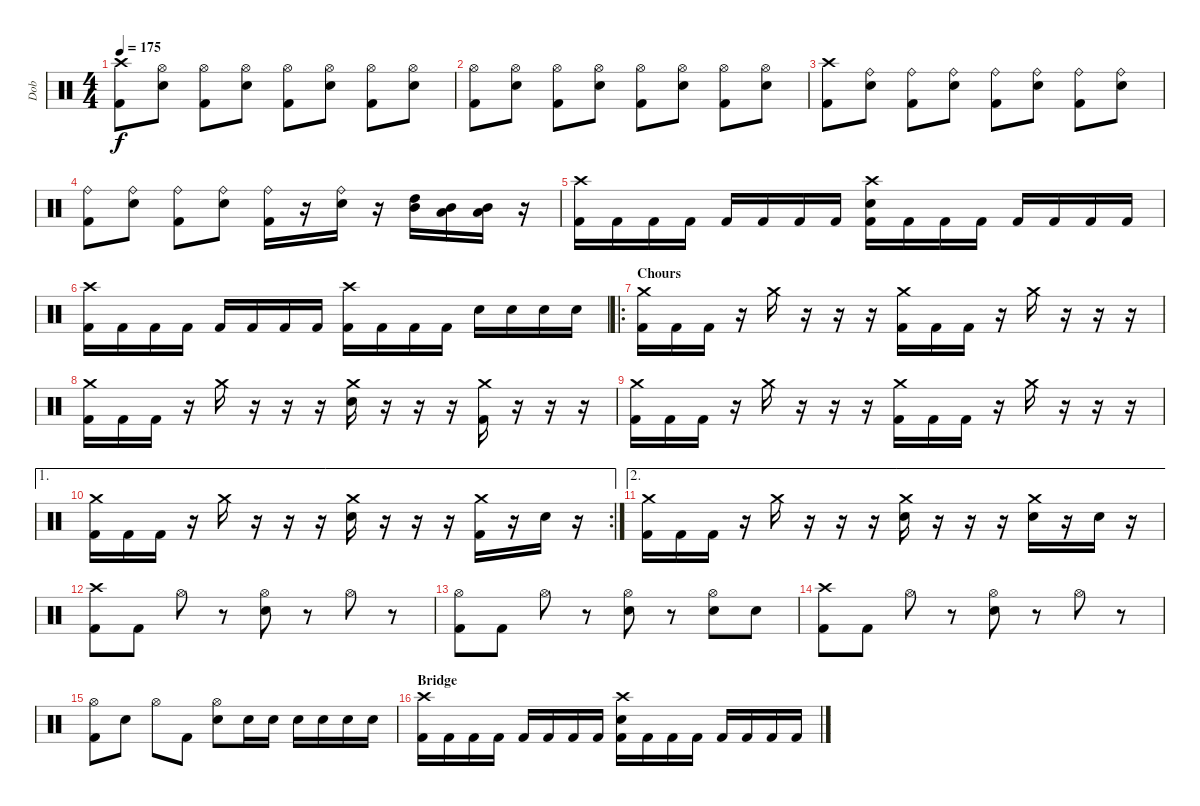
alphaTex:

\track ("Dob" "Dob") {instrument percussion}
\staff {score}
\articulation defaults
\ts (4 4)
\tempo 175
\clef neutral
\ks c
("Crash high (hit)" "Kick (hit) 2").8{dy f} ("Hi-Hat (open)" "Snare (hit) 2").8 ("Hi-Hat (open)" "Kick (hit) 2").8 ("Hi-Hat (open)" "Snare (hit) 2").8 ("Hi-Hat (open)" "Kick (hit) 2").8 ("Hi-Hat (open)" "Snare (hit) 2").8 ("Hi-Hat (open)" "Kick (hit) 2").8 ("Hi-Hat (open)" "Snare (hit) 2").8 |
("Hi-Hat (open)" "Kick (hit) 2").8 ("Hi-Hat (open)" "Snare (hit) 2").8 ("Hi-Hat (open)" "Kick (hit) 2").8 ("Hi-Hat (open)" "Snare (hit) 2").8 ("Hi-Hat (open)" "Kick (hit) 2").8 ("Hi-Hat (open)" "Snare (hit) 2").8 ("Hi-Hat (open)" "Kick (hit) 2").8 ("Hi-Hat (open)" "Snare (hit) 2").8 |
("Crash high (hit)" "Kick (hit) 2").8 ("Ride (bell)" "Snare (hit) 2").8 ("Ride (bell)" "Kick (hit) 2").8 ("Ride (bell)" "Snare (hit) 2").8 ("Ride (bell)" "Kick (hit) 2").8 ("Ride (bell)" "Snare (hit) 2").8 ("Ride (bell)" "Kick (hit) 2").8 ("Ride (bell)" "Snare (hit) 2").8 |
("Ride (bell)" "Kick (hit) 2").8 ("Ride (bell)" "Snare (hit) 2").8 ("Ride (bell)" "Kick (hit) 2").8 ("Ride (bell)" "Snare (hit) 2").8 ("Ride (bell)" "Kick (hit) 2").16 r.16 ("Ride (bell)" "Snare (hit) 2").16 r.16 ("Mid Tom (hit)" "High Tom (hit)").16 ("Low Tom (hit)" "Mid Tom (hit)").16 ("Low Tom (hit)" "Mid Tom (hit)").16 r.16 |
("Crash high (hit)" "Kick (hit) 2").16 "Kick (hit) 2".16 "Kick (hit) 2".16 "Kick (hit) 2".16 "Kick (hit) 2".16 "Kick (hit) 2".16 "Kick (hit) 2".16 "Kick (hit) 2".16 ("Crash high (hit)" "Snare (hit) 2" "Kick (hit) 2").16 "Kick (hit) 2".16 "Kick (hit) 2".16 "Kick (hit) 2".16 "Kick (hit) 2".16 "Kick (hit) 2".16 "Kick (hit) 2".16 "Kick (hit) 2".16 |
("Crash high (hit)" "Kick (hit) 2").16 "Kick (hit) 2".16 "Kick (hit) 2".16 "Kick (hit) 2".16 "Kick (hit) 2".16 "Kick (hit) 2".16 "Kick (hit) 2".16 "Kick (hit) 2".16 ("Crash high (hit)" "Kick (hit) 2").16 "Kick (hit) 2".16 "Kick (hit) 2".16 "Kick (hit) 2".16 "Snare (hit) 2".16 "Snare (hit) 2".16 "Snare (hit) 2".16 "Snare (hit) 2".16 |
\ro
\section ("" "Chours")
("Crash medium (hit)" "Kick (hit) 2").16 "Kick (hit) 2".16 "Kick (hit) 2".16 r.16 "Crash medium (hit)".16 r.16 r.16 r.16 ("Crash medium (hit)" "Kick (hit) 2").16 "Kick (hit) 2".16 "Kick (hit) 2".16 r.16 "Crash medium (hit)".16 r.16 r.16 r.16 |
("Crash medium (hit)" "Kick (hit) 2").16 "Kick (hit) 2".16 "Kick (hit) 2".16 r.16 "Crash medium (hit)".16 r.16 r.16 r.16 ("Crash medium (hit)" "Snare (hit) 2").16 r.16 r.16 r.16 ("Crash medium (hit)" "Kick (hit) 2").16 r.16 r.16 r.16 |
("Crash medium (hit)" "Kick (hit) 2").16 "Kick (hit) 2".16 "Kick (hit) 2".16 r.16 "Crash medium (hit)".16 r.16 r.16 r.16 ("Crash medium (hit)" "Kick (hit) 2").16 "Kick (hit) 2".16 "Kick (hit) 2".16 r.16 "Crash medium (hit)".16 r.16 r.16 r.16 |
\ae 1
\rc 2
("Crash medium (hit)" "Kick (hit) 2").16 "Kick (hit) 2".16 "Kick (hit) 2".16 r.16 "Crash medium (hit)".16 r.16 r.16 r.16 ("Crash medium (hit)" "Snare (hit) 2").16 r.16 r.16 r.16 ("Crash medium (hit)" "Kick (hit) 2").16 r.16 "Snare (hit) 2".16 r.16 |
\ae 2
("Crash medium (hit)" "Kick (hit) 2").16 "Kick (hit) 2".16 "Kick (hit) 2".16 r.16 "Crash medium (hit)".16 r.16 r.16 r.16 ("Crash medium (hit)" "Snare (hit) 2").16 r.16 r.16 r.16 ("Crash medium (hit)" "Snare (hit) 2").16 r.16 "Snare (hit) 2".16 r.16 |
("Crash high (hit)" "Kick (hit) 2").8 "Kick (hit) 2".8 "Hi-Hat (open)".8 r.8 ("Hi-Hat (open)" "Snare (hit) 2").8 r.8 "Hi-Hat (open)".8 r.8 |
("Hi-Hat (open)" "Kick (hit) 2").8 "Kick (hit) 2".8 "Hi-Hat (open)".8 r.8 ("Hi-Hat (open)" "Snare (hit) 2").8 r.8 ("Hi-Hat (open)" "Snare (hit) 2").8 "Snare (hit) 2".8 |
("Crash high (hit)" "Kick (hit) 2").8 "Kick (hit) 2".8 "Hi-Hat (open)".8 r.8 ("Hi-Hat (open)" "Snare (hit) 2").8 r.8 "Hi-Hat (open)".8 r.8 |
("Hi-Hat (open)" "Kick (hit) 2").8 "Snare (hit) 2".8 "Hi-Hat (open)".8 "Kick (hit) 2".8 ("Hi-Hat (open)" "Snare (hit) 2").8 "Snare (hit) 2".16 "Snare (hit) 2".16 "Snare (hit) 2".16 "Snare (hit) 2".16 "Snare (hit) 2".16 "Snare (hit) 2".16 |
\section ("" "Bridge")
("Crash high (hit)" "Kick (hit) 2").16 "Kick (hit) 2".16 "Kick (hit) 2".16 "Kick (hit) 2".16 "Kick (hit) 2".16 "Kick (hit) 2".16 "Kick (hit) 2".16 "Kick (hit) 2".16 ("Crash high (hit)" "Snare (hit) 2" "Kick (hit) 2").16 "Kick (hit) 2".16 "Kick (hit) 2".16 "Kick (hit) 2".16 "Kick (hit) 2".16 "Kick (hit) 2".16 "Kick (hit) 2".16 "Kick (hit) 2".16
